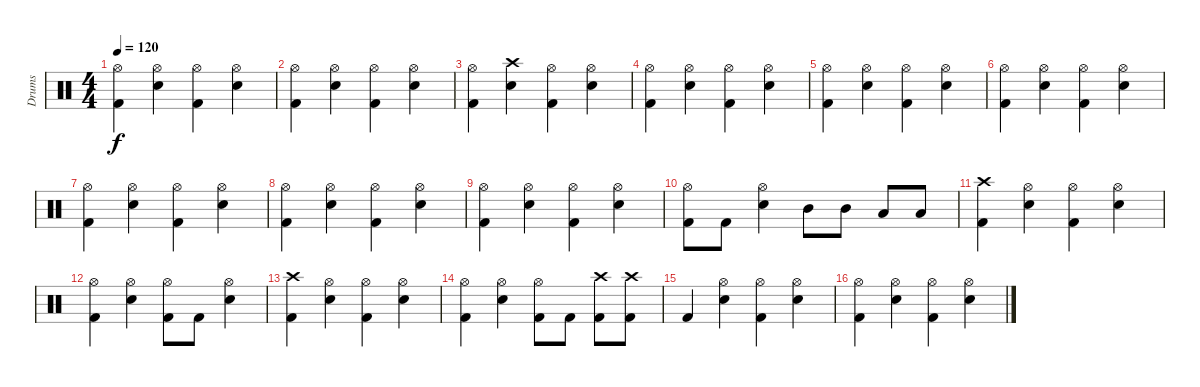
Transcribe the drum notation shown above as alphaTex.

\track ("Drums" "Drums") {instrument percussion}
\staff {score}
\articulation defaults
\ts (4 4)
\tempo 120
\clef neutral
\ks c
("Hi-Hat (open)" "Kick (hit) 2").4{dy f} ("Hi-Hat (open)" "Electric Snare (hit)").4 ("Hi-Hat (open)" "Kick (hit) 2").4 ("Hi-Hat (open)" "Electric Snare (hit)").4 |
("Hi-Hat (open)" "Kick (hit) 2").4 ("Hi-Hat (open)" "Electric Snare (hit)").4 ("Hi-Hat (open)" "Kick (hit) 2").4 ("Hi-Hat (open)" "Electric Snare (hit)").4 |
("Hi-Hat (open)" "Kick (hit) 2").4 ("Crash high (hit)" "Electric Snare (hit)").4 ("Hi-Hat (open)" "Kick (hit) 2").4 ("Hi-Hat (open)" "Electric Snare (hit)").4 |
("Hi-Hat (open)" "Kick (hit) 2").4 ("Hi-Hat (open)" "Electric Snare (hit)").4 ("Hi-Hat (open)" "Kick (hit) 2").4 ("Hi-Hat (open)" "Electric Snare (hit)").4 |
("Hi-Hat (open)" "Kick (hit) 2").4 ("Hi-Hat (open)" "Electric Snare (hit)").4 ("Hi-Hat (open)" "Kick (hit) 2").4 ("Hi-Hat (open)" "Electric Snare (hit)").4 |
("Hi-Hat (open)" "Kick (hit) 2").4 ("Hi-Hat (open)" "Electric Snare (hit)").4 ("Hi-Hat (open)" "Kick (hit) 2").4 ("Hi-Hat (open)" "Electric Snare (hit)").4 |
("Hi-Hat (open)" "Kick (hit) 2").4 ("Hi-Hat (open)" "Electric Snare (hit)").4 ("Hi-Hat (open)" "Kick (hit) 2").4 ("Hi-Hat (open)" "Electric Snare (hit)").4 |
("Hi-Hat (open)" "Kick (hit) 2").4 ("Hi-Hat (open)" "Electric Snare (hit)").4 ("Hi-Hat (open)" "Kick (hit) 2").4 ("Hi-Hat (open)" "Electric Snare (hit)").4 |
("Hi-Hat (open)" "Kick (hit) 2").4 ("Hi-Hat (open)" "Electric Snare (hit)").4 ("Hi-Hat (open)" "Kick (hit) 2").4 ("Hi-Hat (open)" "Electric Snare (hit)").4 |
("Hi-Hat (open)" "Kick (hit) 2").8 "Kick (hit) 2".8 ("Hi-Hat (open)" "Electric Snare (hit)").4 "Mid Tom (hit)".8 "Mid Tom (hit)".8 "Low Tom (hit)".8 "Low Tom (hit)".8 |
("Crash high (hit)" "Kick (hit) 2").4 ("Hi-Hat (open)" "Electric Snare (hit)").4 ("Hi-Hat (open)" "Kick (hit) 2").4 ("Hi-Hat (open)" "Electric Snare (hit)").4 |
("Hi-Hat (open)" "Kick (hit) 2").4 ("Hi-Hat (open)" "Electric Snare (hit)").4 ("Hi-Hat (open)" "Kick (hit) 2").8 "Kick (hit) 2".8 ("Hi-Hat (open)" "Electric Snare (hit)").4 |
("Crash high (hit)" "Kick (hit) 2").4 ("Hi-Hat (open)" "Electric Snare (hit)").4 ("Hi-Hat (open)" "Kick (hit) 2").4 ("Hi-Hat (open)" "Electric Snare (hit)").4 |
("Hi-Hat (open)" "Kick (hit) 2").4 ("Hi-Hat (open)" "Electric Snare (hit)").4 ("Hi-Hat (open)" "Kick (hit) 2").8 "Kick (hit) 2".8 ("Crash high (hit)" "Kick (hit) 2").8 ("Crash high (hit)" "Kick (hit) 2").8 |
"Kick (hit) 2".4 ("Hi-Hat (open)" "Electric Snare (hit)").4 ("Hi-Hat (open)" "Kick (hit) 2").4 ("Hi-Hat (open)" "Electric Snare (hit)").4 |
("Hi-Hat (open)" "Kick (hit) 2").4 ("Hi-Hat (open)" "Electric Snare (hit)").4 ("Hi-Hat (open)" "Kick (hit) 2").4 ("Hi-Hat (open)" "Electric Snare (hit)").4
